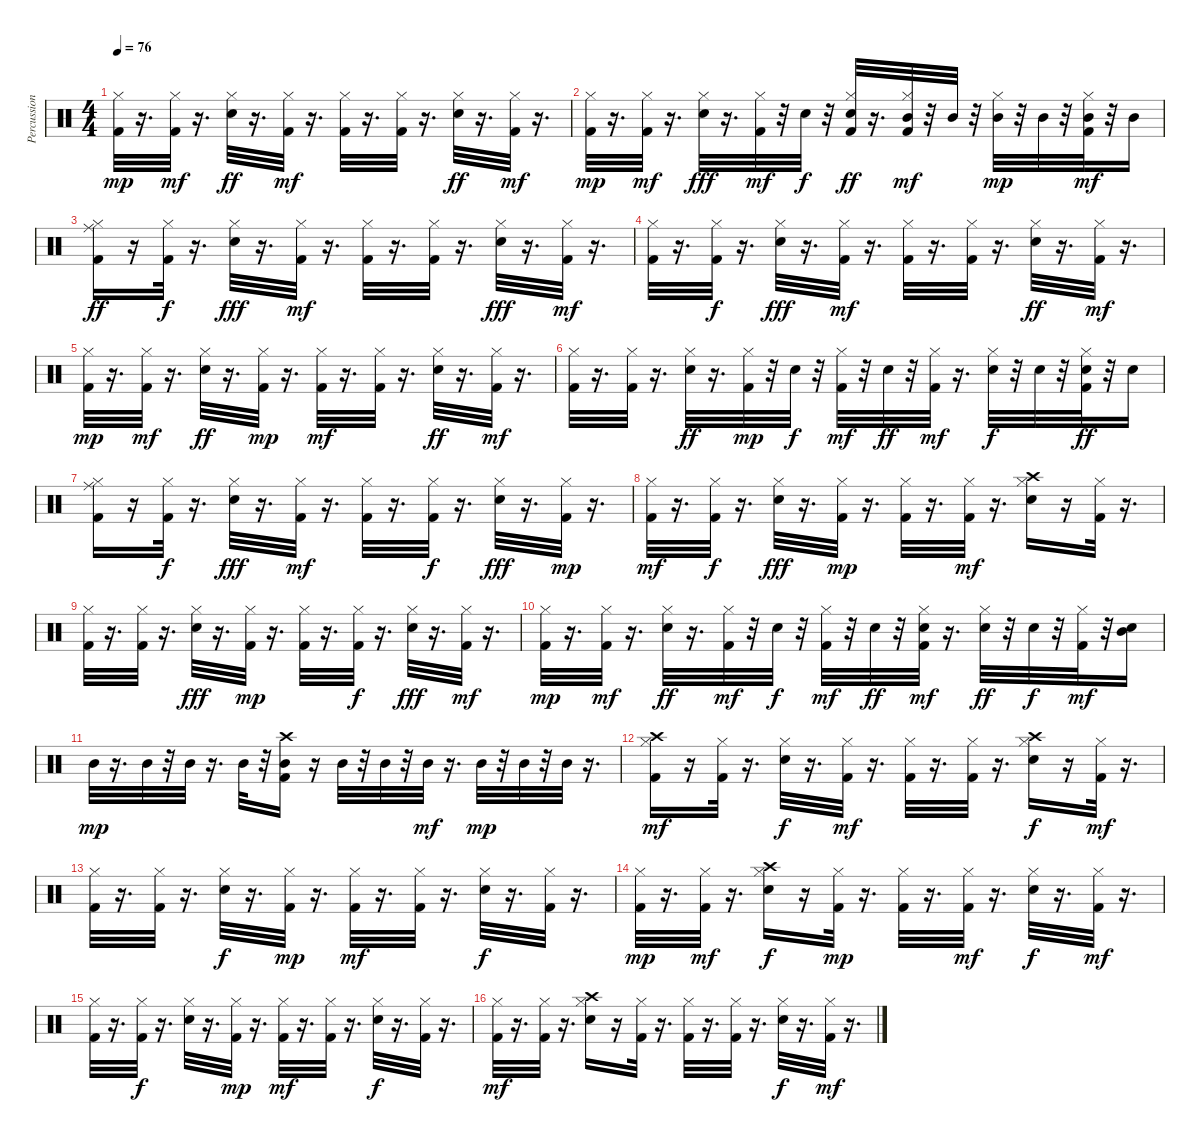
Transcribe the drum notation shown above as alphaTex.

\track ("Percussion Fill" "Percussion") {instrument percussion}
\staff {score}
\articulation defaults
\ts (4 4)
\tempo 76
\clef neutral
\ks c
("Kick (hit) 2" "Hi-Hat (closed)").32{dy mp} r.16{d} ("Kick (hit) 2" "Hi-Hat (closed)").32{dy mf} r.16{d} ("Snare (hit) 2" "Hi-Hat (closed)").32{dy ff} r.16{d} ("Kick (hit) 2" "Hi-Hat (closed)").32{dy mf} r.16{d} ("Kick (hit) 2" "Hi-Hat (closed)").32 r.16{d} ("Kick (hit) 2" "Hi-Hat (closed)").32 r.16{d} ("Snare (hit) 2" "Hi-Hat (closed)").32{dy ff} r.16{d} ("Kick (hit) 2" "Hi-Hat (closed)").32{dy mf} r.16{d} |
("Kick (hit) 2" "Hi-Hat (closed)").32{dy mp} r.16{d} ("Kick (hit) 2" "Hi-Hat (closed)").32{dy mf} r.16{d} ("Snare (hit) 2" "Hi-Hat (closed)").32{dy fff} r.16{d} ("Kick (hit) 2" "Hi-Hat (closed)").32{dy mf} r.32 "Snare (hit) 2".32{dy f} r.32 ("Kick (hit) 2" "Snare (hit) 2" "Hi-Hat (closed)").32{dy ff} r.16{d} ("Kick (hit) 2" "Hi-Hat (closed)" "Mid Tom (hit)").32{dy mf} r.32 "Mid Tom (hit)".32 r.32 ("Hi-Hat (closed)" "Mid Tom (hit)").32{dy mp} r.32 "Mid Tom (hit)".32 r.32 ("Kick (hit) 2" "Hi-Hat (closed)" "Mid Tom (hit)").32{dy mf} r.32 "Mid Tom (hit)".16 |
("Kick (hit) 2" "Hi-Hat (closed)" "Ride (middle)").16{dy ff} r.16 ("Kick (hit) 2" "Hi-Hat (closed)").32{dy f} r.16{d} ("Snare (hit) 2" "Hi-Hat (closed)").32{dy fff} r.16{d} ("Kick (hit) 2" "Hi-Hat (closed)").32{dy mf} r.16{d} ("Kick (hit) 2" "Hi-Hat (closed)").32 r.16{d} ("Kick (hit) 2" "Hi-Hat (closed)").32 r.16{d} ("Snare (hit) 2" "Hi-Hat (closed)").32{dy fff} r.16{d} ("Kick (hit) 2" "Hi-Hat (closed)").32{dy mf} r.16{d} |
("Kick (hit) 2" "Hi-Hat (closed)").32 r.16{d} ("Kick (hit) 2" "Hi-Hat (closed)").32{dy f} r.16{d} ("Snare (hit) 2" "Hi-Hat (closed)").32{dy fff} r.16{d} ("Kick (hit) 2" "Hi-Hat (closed)").32{dy mf} r.16{d} ("Kick (hit) 2" "Hi-Hat (closed)").32 r.16{d} ("Kick (hit) 2" "Hi-Hat (closed)").32 r.16{d} ("Snare (hit) 2" "Hi-Hat (closed)").32{dy ff} r.16{d} ("Kick (hit) 2" "Hi-Hat (closed)").32{dy mf} r.16{d} |
("Kick (hit) 2" "Hi-Hat (closed)").32{dy mp} r.16{d} ("Kick (hit) 2" "Hi-Hat (closed)").32{dy mf} r.16{d} ("Snare (hit) 2" "Hi-Hat (closed)").32{dy ff} r.16{d} ("Kick (hit) 2" "Hi-Hat (closed)").32{dy mp} r.16{d} ("Kick (hit) 2" "Hi-Hat (closed)").32{dy mf} r.16{d} ("Kick (hit) 2" "Hi-Hat (closed)").32 r.16{d} ("Snare (hit) 2" "Hi-Hat (closed)").32{dy ff} r.16{d} ("Kick (hit) 2" "Hi-Hat (closed)").32{dy mf} r.16{d} |
("Kick (hit) 2" "Hi-Hat (closed)").32 r.16{d} ("Kick (hit) 2" "Hi-Hat (closed)").32 r.16{d} ("Snare (hit) 2" "Hi-Hat (closed)").32{dy ff} r.16{d} ("Kick (hit) 2" "Hi-Hat (closed)").32{dy mp} r.32 "Snare (hit) 2".32{dy f} r.32 ("Kick (hit) 2" "Hi-Hat (closed)").32{dy mf} r.32 "Snare (hit) 2".32{dy ff} r.32 ("Kick (hit) 2" "Hi-Hat (closed)").32{dy mf} r.16{d} ("Snare (hit) 2" "Hi-Hat (closed)").32{dy f} r.32 "Snare (hit) 2".32 r.32 ("Kick (hit) 2" "Snare (hit) 2" "Hi-Hat (closed)").32{dy ff} r.32 "Snare (hit) 2".16 |
("Kick (hit) 2" "Hi-Hat (closed)" "Ride (middle)").16 r.16 ("Kick (hit) 2" "Hi-Hat (closed)").32{dy f} r.16{d} ("Snare (hit) 2" "Hi-Hat (closed)").32{dy fff} r.16{d} ("Kick (hit) 2" "Hi-Hat (closed)").32{dy mf} r.16{d} ("Kick (hit) 2" "Hi-Hat (closed)").32 r.16{d} ("Kick (hit) 2" "Hi-Hat (closed)").32{dy f} r.16{d} ("Snare (hit) 2" "Hi-Hat (closed)").32{dy fff} r.16{d} ("Kick (hit) 2" "Hi-Hat (closed)").32{dy mp} r.16{d} |
("Kick (hit) 2" "Hi-Hat (closed)").32{dy mf} r.16{d} ("Kick (hit) 2" "Hi-Hat (closed)").32{dy f} r.16{d} ("Snare (hit) 2" "Hi-Hat (closed)").32{dy fff} r.16{d} ("Kick (hit) 2" "Hi-Hat (closed)").32{dy mp} r.16{d} ("Kick (hit) 2" "Hi-Hat (closed)").32 r.16{d} ("Kick (hit) 2" "Hi-Hat (closed)").32{dy mf} r.16{d} ("Snare (hit) 2" "Hi-Hat (closed)" "Crash high (hit)").16 r.16 ("Kick (hit) 2" "Hi-Hat (closed)").32 r.16{d} |
("Kick (hit) 2" "Hi-Hat (closed)").32 r.16{d} ("Kick (hit) 2" "Hi-Hat (closed)").32 r.16{d} ("Snare (hit) 2" "Hi-Hat (closed)").32{dy fff} r.16{d} ("Kick (hit) 2" "Hi-Hat (closed)").32{dy mp} r.16{d} ("Kick (hit) 2" "Hi-Hat (closed)").32 r.16{d} ("Kick (hit) 2" "Hi-Hat (closed)").32{dy f} r.16{d} ("Snare (hit) 2" "Hi-Hat (closed)").32{dy fff} r.16{d} ("Kick (hit) 2" "Hi-Hat (closed)").32{dy mf} r.16{d} |
("Kick (hit) 2" "Hi-Hat (closed)").32{dy mp} r.16{d} ("Kick (hit) 2" "Hi-Hat (closed)").32{dy mf} r.16{d} ("Snare (hit) 2" "Hi-Hat (closed)").32{dy ff} r.16{d} ("Kick (hit) 2" "Hi-Hat (closed)").32{dy mf} r.32 "Snare (hit) 2".32{dy f} r.32 ("Kick (hit) 2" "Hi-Hat (closed)").32{dy mf} r.32 "Snare (hit) 2".32{dy ff} r.32 ("Kick (hit) 2" "Snare (hit) 2" "Hi-Hat (closed)").32{dy mf} r.16{d} ("Snare (hit) 2" "Hi-Hat (closed)").32{dy ff} r.32 "Snare (hit) 2".32{dy f} r.32 ("Kick (hit) 2" "Hi-Hat (closed)").32{dy mf} r.32 ("Snare (hit) 2" "Mid Tom (hit)").16 |
"Mid Tom (hit)".32{dy mp} r.16{d} "Mid Tom (hit)".32 r.32 "Mid Tom (hit)".32 r.16{d} "Mid Tom (hit)".32 r.32 ("Kick (hit) 2" "Mid Tom (hit)" "Crash high (hit)").16 r.16 "Mid Tom (hit)".32 r.32 "Mid Tom (hit)".32 r.32 "Mid Tom (hit)".32{dy mf} r.16{d} "Mid Tom (hit)".32{dy mp} r.32 "Mid Tom (hit)".32 r.32 "Mid Tom (hit)".32 r.16{d} |
("Kick (hit) 2" "Hi-Hat (closed)" "Crash high (hit)").16{dy mf} r.16 ("Kick (hit) 2" "Hi-Hat (closed)").32 r.16{d} ("Snare (hit) 2" "Hi-Hat (closed)").32{dy f} r.16{d} ("Kick (hit) 2" "Hi-Hat (closed)").32{dy mf} r.16{d} ("Kick (hit) 2" "Hi-Hat (closed)").32 r.16{d} ("Kick (hit) 2" "Hi-Hat (closed)").32 r.16{d} ("Snare (hit) 2" "Hi-Hat (closed)" "Crash high (hit)").16{dy f} r.16 ("Kick (hit) 2" "Hi-Hat (closed)").32{dy mf} r.16{d} |
("Kick (hit) 2" "Hi-Hat (closed)").32 r.16{d} ("Kick (hit) 2" "Hi-Hat (closed)").32 r.16{d} ("Snare (hit) 2" "Hi-Hat (closed)").32{dy f} r.16{d} ("Kick (hit) 2" "Hi-Hat (closed)").32{dy mp} r.16{d} ("Kick (hit) 2" "Hi-Hat (closed)").32{dy mf} r.16{d} ("Kick (hit) 2" "Hi-Hat (closed)").32 r.16{d} ("Snare (hit) 2" "Hi-Hat (closed)").32{dy f} r.16{d} ("Kick (hit) 2" "Hi-Hat (closed)").32 r.16{d} |
("Kick (hit) 2" "Hi-Hat (closed)").32{dy mp} r.16{d} ("Kick (hit) 2" "Hi-Hat (closed)").32{dy mf} r.16{d} ("Snare (hit) 2" "Hi-Hat (closed)" "Crash high (hit)").16{dy f} r.16 ("Kick (hit) 2" "Hi-Hat (closed)").32{dy mp} r.16{d} ("Kick (hit) 2" "Hi-Hat (closed)").32 r.16{d} ("Kick (hit) 2" "Hi-Hat (closed)").32{dy mf} r.16{d} ("Snare (hit) 2" "Hi-Hat (closed)").32{dy f} r.16{d} ("Kick (hit) 2" "Hi-Hat (closed)").32{dy mf} r.16{d} |
("Kick (hit) 2" "Hi-Hat (closed)").32 r.16{d} ("Kick (hit) 2" "Hi-Hat (closed)").32{dy f} r.16{d} ("Snare (hit) 2" "Hi-Hat (closed)").32 r.16{d} ("Kick (hit) 2" "Hi-Hat (closed)").32{dy mp} r.16{d} ("Kick (hit) 2" "Hi-Hat (closed)").32{dy mf} r.16{d} ("Kick (hit) 2" "Hi-Hat (closed)").32 r.16{d} ("Snare (hit) 2" "Hi-Hat (closed)").32{dy f} r.16{d} ("Kick (hit) 2" "Hi-Hat (closed)").32 r.16{d} |
("Kick (hit) 2" "Hi-Hat (closed)").32{dy mf} r.16{d} ("Kick (hit) 2" "Hi-Hat (closed)").32 r.16{d} ("Snare (hit) 2" "Hi-Hat (closed)" "Crash high (hit)").16 r.16 ("Kick (hit) 2" "Hi-Hat (closed)").32 r.16{d} ("Kick (hit) 2" "Hi-Hat (closed)").32 r.16{d} ("Kick (hit) 2" "Hi-Hat (closed)").32 r.16{d} ("Snare (hit) 2" "Hi-Hat (closed)").32{dy f} r.16{d} ("Kick (hit) 2" "Hi-Hat (closed)").32{dy mf} r.16{d}
